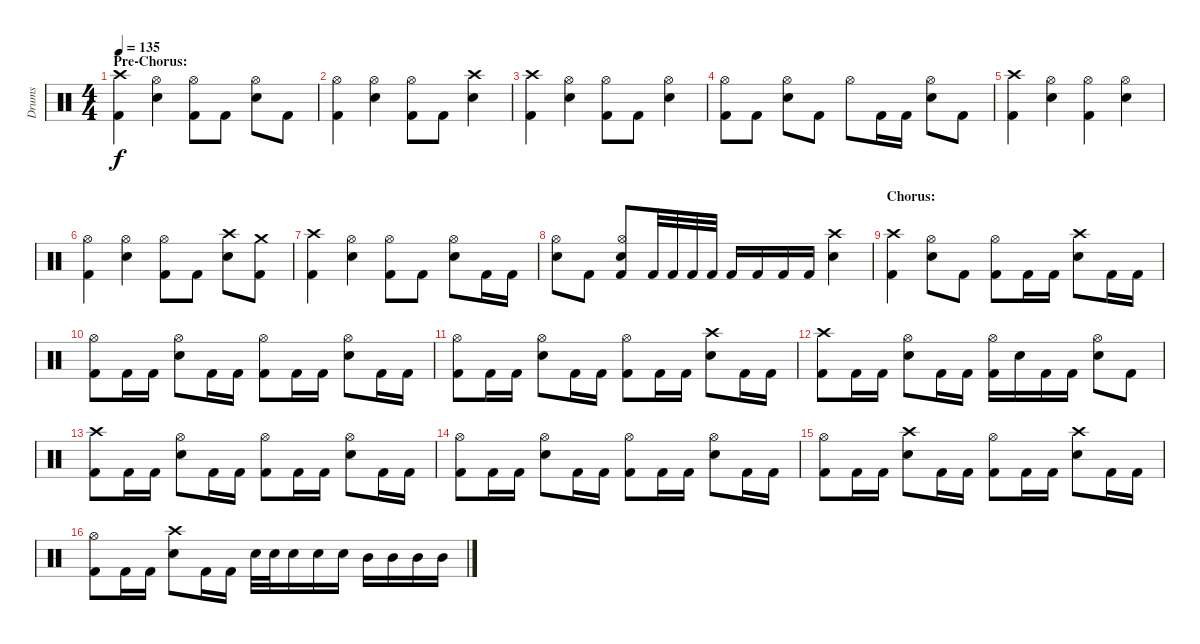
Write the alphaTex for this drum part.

\track ("Drums" "Drums") {instrument percussion}
\staff {score}
\articulation defaults
\ts (4 4)
\section ("" "Pre-Chorus:")
\tempo 135
\clef neutral
\ks c
("Crash high (hit)" "Kick (hit) 2").4{dy f} ("Hi-Hat (open)" "Electric Snare (hit)").4 ("Hi-Hat (open)" "Kick (hit) 2").8 "Kick (hit) 2".8 ("Hi-Hat (open)" "Electric Snare (hit)").8 "Kick (hit) 2".8 |
("Hi-Hat (open)" "Kick (hit) 2").4 ("Hi-Hat (open)" "Electric Snare (hit)").4 ("Hi-Hat (open)" "Kick (hit) 2").8 "Kick (hit) 2".8 ("Crash high (hit)" "Electric Snare (hit)").4 |
("Crash high (hit)" "Kick (hit) 2").4 ("Hi-Hat (open)" "Electric Snare (hit)").4 ("Hi-Hat (open)" "Kick (hit) 2").8 "Kick (hit) 2".8 ("Hi-Hat (open)" "Electric Snare (hit)").4 |
("Hi-Hat (open)" "Kick (hit) 2").8 "Kick (hit) 2".8 ("Hi-Hat (open)" "Electric Snare (hit)").8 "Kick (hit) 2".8 "Hi-Hat (open)".8 "Kick (hit) 2".16 "Kick (hit) 2".16 ("Hi-Hat (open)" "Electric Snare (hit)").8 "Kick (hit) 2".8 |
("Crash high (hit)" "Kick (hit) 2").4 ("Hi-Hat (open)" "Electric Snare (hit)").4 ("Hi-Hat (open)" "Kick (hit) 2").4 ("Hi-Hat (open)" "Electric Snare (hit)").4 |
("Hi-Hat (open)" "Kick (hit) 2").4 ("Hi-Hat (open)" "Electric Snare (hit)").4 ("Hi-Hat (open)" "Kick (hit) 2").8 "Kick (hit) 2".8 ("Crash high (hit)" "Electric Snare (hit)").8 ("Crash medium (hit)" "Kick (hit) 2").8 |
("Crash high (hit)" "Kick (hit) 2").4 ("Hi-Hat (open)" "Electric Snare (hit)").4 ("Hi-Hat (open)" "Kick (hit) 2").8 "Kick (hit) 2".8 ("Hi-Hat (open)" "Electric Snare (hit)").8 "Kick (hit) 2".16 "Kick (hit) 2".16 |
("Hi-Hat (open)" "Electric Snare (hit)").8 "Kick (hit) 2".8 ("Hi-Hat (open)" "Electric Snare (hit)" "Kick (hit) 2").8 "Kick (hit) 2".32 "Kick (hit) 2".32 "Kick (hit) 2".32 "Kick (hit) 2".32 "Kick (hit) 2".16 "Kick (hit) 2".16 "Kick (hit) 2".16 "Kick (hit) 2".16 ("Crash high (hit)" "Electric Snare (hit)").4 |
\section ("" "Chorus:")
("Crash high (hit)" "Kick (hit) 2").4 ("Hi-Hat (open)" "Electric Snare (hit)").8 "Kick (hit) 2".8 ("Hi-Hat (open)" "Kick (hit) 2").8 "Kick (hit) 2".16 "Kick (hit) 2".16 ("Crash high (hit)" "Electric Snare (hit)").8 "Kick (hit) 2".16 "Kick (hit) 2".16 |
("Hi-Hat (open)" "Kick (hit) 2").8 "Kick (hit) 2".16 "Kick (hit) 2".16 ("Hi-Hat (open)" "Electric Snare (hit)").8 "Kick (hit) 2".16 "Kick (hit) 2".16 ("Hi-Hat (open)" "Kick (hit) 2").8 "Kick (hit) 2".16 "Kick (hit) 2".16 ("Hi-Hat (open)" "Electric Snare (hit)").8 "Kick (hit) 2".16 "Kick (hit) 2".16 |
("Hi-Hat (open)" "Kick (hit) 2").8 "Kick (hit) 2".16 "Kick (hit) 2".16 ("Hi-Hat (open)" "Electric Snare (hit)").8 "Kick (hit) 2".16 "Kick (hit) 2".16 ("Hi-Hat (open)" "Kick (hit) 2").8 "Kick (hit) 2".16 "Kick (hit) 2".16 ("Crash high (hit)" "Electric Snare (hit)").8 "Kick (hit) 2".16 "Kick (hit) 2".16 |
("Crash high (hit)" "Kick (hit) 2").8 "Kick (hit) 2".16 "Kick (hit) 2".16 ("Hi-Hat (open)" "Electric Snare (hit)").8 "Kick (hit) 2".16 "Kick (hit) 2".16 ("Hi-Hat (open)" "Kick (hit) 2").16 "Electric Snare (hit)".16 "Kick (hit) 2".16 "Kick (hit) 2".16 ("Hi-Hat (open)" "Electric Snare (hit)").8 "Kick (hit) 2".8 |
("Crash high (hit)" "Kick (hit) 2").8 "Kick (hit) 2".16 "Kick (hit) 2".16 ("Hi-Hat (open)" "Electric Snare (hit)").8 "Kick (hit) 2".16 "Kick (hit) 2".16 ("Hi-Hat (open)" "Kick (hit) 2").8 "Kick (hit) 2".16 "Kick (hit) 2".16 ("Hi-Hat (open)" "Electric Snare (hit)").8 "Kick (hit) 2".16 "Kick (hit) 2".16 |
("Hi-Hat (open)" "Kick (hit) 2").8 "Kick (hit) 2".16 "Kick (hit) 2".16 ("Hi-Hat (open)" "Electric Snare (hit)").8 "Kick (hit) 2".16 "Kick (hit) 2".16 ("Hi-Hat (open)" "Kick (hit) 2").8 "Kick (hit) 2".16 "Kick (hit) 2".16 ("Hi-Hat (open)" "Electric Snare (hit)").8 "Kick (hit) 2".16 "Kick (hit) 2".16 |
("Hi-Hat (open)" "Kick (hit) 2").8 "Kick (hit) 2".16 "Kick (hit) 2".16 ("Crash high (hit)" "Electric Snare (hit)").8 "Kick (hit) 2".16 "Kick (hit) 2".16 ("Hi-Hat (open)" "Kick (hit) 2").8 "Kick (hit) 2".16 "Kick (hit) 2".16 ("Crash high (hit)" "Electric Snare (hit)").8 "Kick (hit) 2".16 "Kick (hit) 2".16 |
("Hi-Hat (open)" "Kick (hit) 2").8 "Kick (hit) 2".16 "Kick (hit) 2".16 ("Crash high (hit)" "Electric Snare (hit)").8 "Kick (hit) 2".16 "Kick (hit) 2".16 "Electric Snare (hit)".32 "Electric Snare (hit)".32 "Electric Snare (hit)".16 "Electric Snare (hit)".16 "Electric Snare (hit)".16 "Mid Tom (hit)".16 "Mid Tom (hit)".16 "Mid Tom (hit)".16 "Mid Tom (hit)".16
